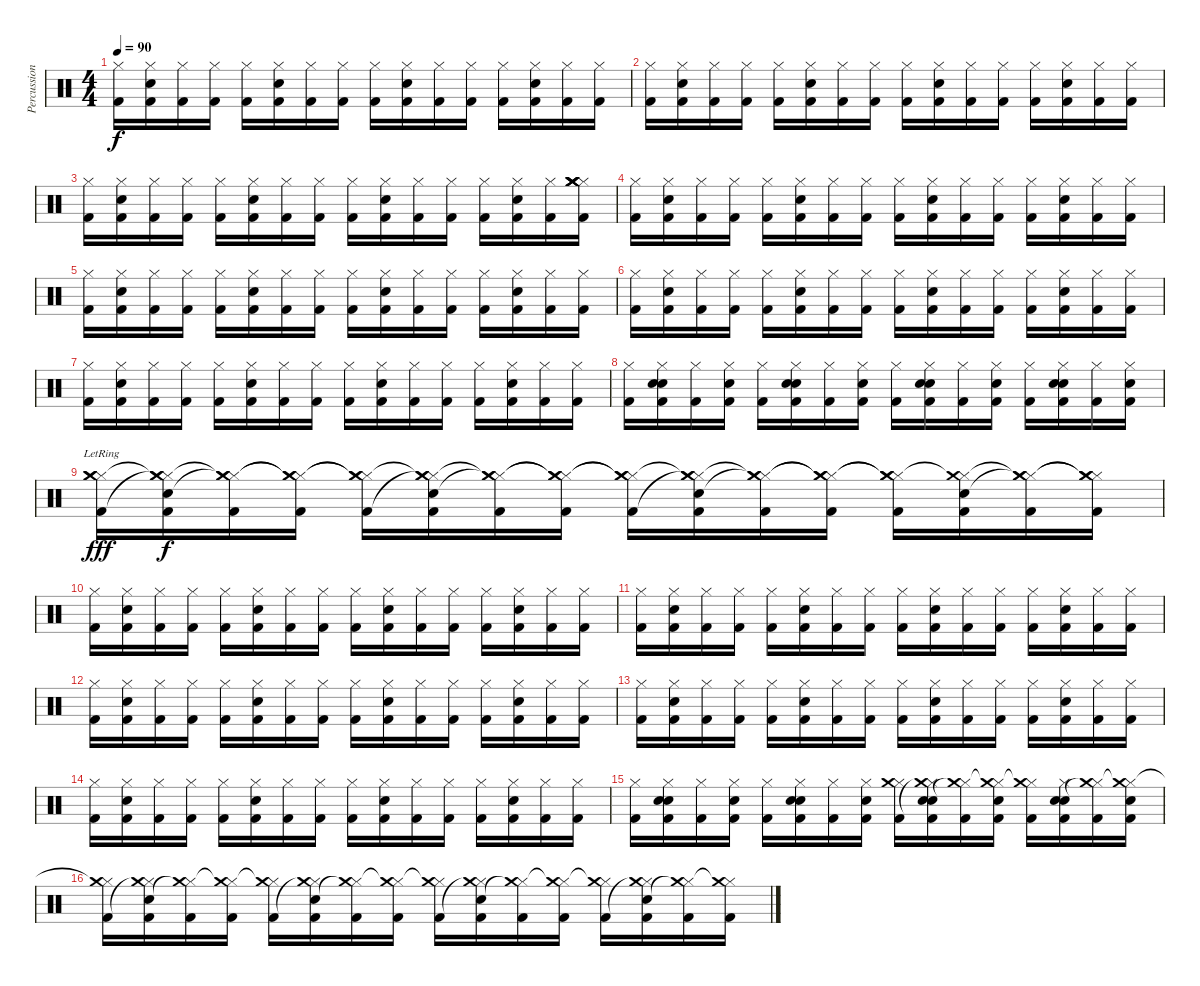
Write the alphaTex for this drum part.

\track ("Percussion" "Percussion") {instrument percussion}
\staff {score}
\articulation defaults
\ts (4 4)
\tempo 90
\clef neutral
\ks c
("Hi-Hat (closed)" "Kick (hit) 2").16{dy f} ("Hi-Hat (closed)" "Snare (hit) 2" "Kick (hit) 2").16 ("Hi-Hat (closed)" "Kick (hit) 2").16 ("Hi-Hat (closed)" "Kick (hit) 2").16 ("Hi-Hat (closed)" "Kick (hit) 2").16 ("Hi-Hat (closed)" "Snare (hit) 2" "Kick (hit) 2").16 ("Hi-Hat (closed)" "Kick (hit) 2").16 ("Hi-Hat (closed)" "Kick (hit) 2").16 ("Hi-Hat (closed)" "Kick (hit) 2").16 ("Hi-Hat (closed)" "Snare (hit) 2" "Kick (hit) 2").16 ("Hi-Hat (closed)" "Kick (hit) 2").16 ("Hi-Hat (closed)" "Kick (hit) 2").16 ("Hi-Hat (closed)" "Kick (hit) 2").16 ("Hi-Hat (closed)" "Snare (hit) 2" "Kick (hit) 2").16 ("Hi-Hat (closed)" "Kick (hit) 2").16 ("Hi-Hat (closed)" "Kick (hit) 2").16 |
("Hi-Hat (closed)" "Kick (hit) 2").16 ("Hi-Hat (closed)" "Snare (hit) 2" "Kick (hit) 2").16 ("Hi-Hat (closed)" "Kick (hit) 2").16 ("Hi-Hat (closed)" "Kick (hit) 2").16 ("Hi-Hat (closed)" "Kick (hit) 2").16 ("Hi-Hat (closed)" "Snare (hit) 2" "Kick (hit) 2").16 ("Hi-Hat (closed)" "Kick (hit) 2").16 ("Hi-Hat (closed)" "Kick (hit) 2").16 ("Hi-Hat (closed)" "Kick (hit) 2").16 ("Hi-Hat (closed)" "Snare (hit) 2" "Kick (hit) 2").16 ("Hi-Hat (closed)" "Kick (hit) 2").16 ("Hi-Hat (closed)" "Kick (hit) 2").16 ("Hi-Hat (closed)" "Kick (hit) 2").16 ("Hi-Hat (closed)" "Snare (hit) 2" "Kick (hit) 2").16 ("Hi-Hat (closed)" "Kick (hit) 2").16 ("Hi-Hat (closed)" "Kick (hit) 2").16 |
("Hi-Hat (closed)" "Kick (hit) 2").16 ("Hi-Hat (closed)" "Snare (hit) 2" "Kick (hit) 2").16 ("Hi-Hat (closed)" "Kick (hit) 2").16 ("Hi-Hat (closed)" "Kick (hit) 2").16 ("Hi-Hat (closed)" "Kick (hit) 2").16 ("Hi-Hat (closed)" "Snare (hit) 2" "Kick (hit) 2").16 ("Hi-Hat (closed)" "Kick (hit) 2").16 ("Hi-Hat (closed)" "Kick (hit) 2").16 ("Hi-Hat (closed)" "Kick (hit) 2").16 ("Hi-Hat (closed)" "Snare (hit) 2" "Kick (hit) 2").16 ("Hi-Hat (closed)" "Kick (hit) 2").16 ("Hi-Hat (closed)" "Kick (hit) 2").16 ("Hi-Hat (closed)" "Kick (hit) 2").16 ("Hi-Hat (closed)" "Snare (hit) 2" "Kick (hit) 2").16 ("Hi-Hat (closed)" "Kick (hit) 2").16 ("Hi-Hat (closed)" "Crash medium (hit)" "Crash medium (hit)" "Crash medium (hit)" "Crash medium (hit)" "Kick (hit) 2").16 |
("Hi-Hat (closed)" "Kick (hit) 2").16 ("Hi-Hat (closed)" "Snare (hit) 2" "Kick (hit) 2").16 ("Hi-Hat (closed)" "Kick (hit) 2").16 ("Hi-Hat (closed)" "Kick (hit) 2").16 ("Hi-Hat (closed)" "Kick (hit) 2").16 ("Hi-Hat (closed)" "Snare (hit) 2" "Kick (hit) 2").16 ("Hi-Hat (closed)" "Kick (hit) 2").16 ("Hi-Hat (closed)" "Kick (hit) 2").16 ("Hi-Hat (closed)" "Kick (hit) 2").16 ("Hi-Hat (closed)" "Snare (hit) 2" "Kick (hit) 2").16 ("Hi-Hat (closed)" "Kick (hit) 2").16 ("Hi-Hat (closed)" "Kick (hit) 2").16 ("Hi-Hat (closed)" "Kick (hit) 2").16 ("Hi-Hat (closed)" "Snare (hit) 2" "Kick (hit) 2").16 ("Hi-Hat (closed)" "Kick (hit) 2").16 ("Hi-Hat (closed)" "Kick (hit) 2").16 |
("Hi-Hat (closed)" "Kick (hit) 2").16 ("Hi-Hat (closed)" "Snare (hit) 2" "Kick (hit) 2").16 ("Hi-Hat (closed)" "Kick (hit) 2").16 ("Hi-Hat (closed)" "Kick (hit) 2").16 ("Hi-Hat (closed)" "Kick (hit) 2").16 ("Hi-Hat (closed)" "Snare (hit) 2" "Kick (hit) 2").16 ("Hi-Hat (closed)" "Kick (hit) 2").16 ("Hi-Hat (closed)" "Kick (hit) 2").16 ("Hi-Hat (closed)" "Kick (hit) 2").16 ("Hi-Hat (closed)" "Snare (hit) 2" "Kick (hit) 2").16 ("Hi-Hat (closed)" "Kick (hit) 2").16 ("Hi-Hat (closed)" "Kick (hit) 2").16 ("Hi-Hat (closed)" "Kick (hit) 2").16 ("Hi-Hat (closed)" "Snare (hit) 2" "Kick (hit) 2").16 ("Hi-Hat (closed)" "Kick (hit) 2").16 ("Hi-Hat (closed)" "Kick (hit) 2").16 |
("Hi-Hat (closed)" "Kick (hit) 2").16 ("Hi-Hat (closed)" "Snare (hit) 2" "Kick (hit) 2").16 ("Hi-Hat (closed)" "Kick (hit) 2").16 ("Hi-Hat (closed)" "Kick (hit) 2").16 ("Hi-Hat (closed)" "Kick (hit) 2").16 ("Hi-Hat (closed)" "Snare (hit) 2" "Kick (hit) 2").16 ("Hi-Hat (closed)" "Kick (hit) 2").16 ("Hi-Hat (closed)" "Kick (hit) 2").16 ("Hi-Hat (closed)" "Kick (hit) 2").16 ("Hi-Hat (closed)" "Snare (hit) 2" "Kick (hit) 2").16 ("Hi-Hat (closed)" "Kick (hit) 2").16 ("Hi-Hat (closed)" "Kick (hit) 2").16 ("Hi-Hat (closed)" "Kick (hit) 2").16 ("Hi-Hat (closed)" "Snare (hit) 2" "Kick (hit) 2").16 ("Hi-Hat (closed)" "Kick (hit) 2").16 ("Hi-Hat (closed)" "Kick (hit) 2").16 |
("Hi-Hat (closed)" "Kick (hit) 2").16 ("Hi-Hat (closed)" "Snare (hit) 2" "Kick (hit) 2").16 ("Hi-Hat (closed)" "Kick (hit) 2").16 ("Hi-Hat (closed)" "Kick (hit) 2").16 ("Hi-Hat (closed)" "Kick (hit) 2").16 ("Hi-Hat (closed)" "Snare (hit) 2" "Kick (hit) 2").16 ("Hi-Hat (closed)" "Kick (hit) 2").16 ("Hi-Hat (closed)" "Kick (hit) 2").16 ("Hi-Hat (closed)" "Kick (hit) 2").16 ("Hi-Hat (closed)" "Snare (hit) 2" "Kick (hit) 2").16 ("Hi-Hat (closed)" "Kick (hit) 2").16 ("Hi-Hat (closed)" "Kick (hit) 2").16 ("Hi-Hat (closed)" "Kick (hit) 2").16 ("Hi-Hat (closed)" "Snare (hit) 2" "Kick (hit) 2").16 ("Hi-Hat (closed)" "Kick (hit) 2").16 ("Hi-Hat (closed)" "Kick (hit) 2").16 |
("Hi-Hat (closed)" "Kick (hit) 2").16 ("Hi-Hat (closed)" "Snare (hit) 2" "Snare (hit) 2" "Kick (hit) 2").16 ("Hi-Hat (closed)" "Kick (hit) 2").16 ("Hi-Hat (closed)" "Snare (hit) 2" "Kick (hit) 2").16 ("Hi-Hat (closed)" "Kick (hit) 2").16 ("Hi-Hat (closed)" "Snare (hit) 2" "Snare (hit) 2" "Kick (hit) 2").16 ("Hi-Hat (closed)" "Kick (hit) 2").16 ("Hi-Hat (closed)" "Snare (hit) 2" "Kick (hit) 2").16 ("Hi-Hat (closed)" "Kick (hit) 2").16 ("Hi-Hat (closed)" "Snare (hit) 2" "Snare (hit) 2" "Kick (hit) 2").16 ("Hi-Hat (closed)" "Kick (hit) 2").16 ("Hi-Hat (closed)" "Snare (hit) 2" "Kick (hit) 2").16 ("Hi-Hat (closed)" "Kick (hit) 2").16 ("Hi-Hat (closed)" "Snare (hit) 2" "Snare (hit) 2" "Kick (hit) 2").16 ("Hi-Hat (closed)" "Kick (hit) 2").16 ("Hi-Hat (closed)" "Snare (hit) 2" "Kick (hit) 2").16 |
("Hi-Hat (closed)" "Crash medium (hit)"{lr} "Crash medium (hit)"{lr} "Kick (hit) 2").16{dy fff} ("Hi-Hat (closed)" "Snare (hit) 2" "Crash medium (hit)"{t} "Crash medium (hit)"{t} "Kick (hit) 2").16{dy f} ("Hi-Hat (closed)" "Crash medium (hit)"{t} "Crash medium (hit)"{t} "Kick (hit) 2").16 ("Hi-Hat (closed)" "Crash medium (hit)"{t} "Crash medium (hit)"{t} "Kick (hit) 2").16 ("Hi-Hat (closed)" "Crash medium (hit)"{t} "Crash medium (hit)"{t} "Kick (hit) 2").16 ("Hi-Hat (closed)" "Snare (hit) 2" "Crash medium (hit)"{t} "Crash medium (hit)"{t} "Kick (hit) 2").16 ("Hi-Hat (closed)" "Crash medium (hit)"{t} "Crash medium (hit)"{t} "Kick (hit) 2").16 ("Hi-Hat (closed)" "Crash medium (hit)"{t} "Crash medium (hit)"{t} "Kick (hit) 2").16 ("Hi-Hat (closed)" "Crash medium (hit)"{t} "Crash medium (hit)"{t} "Kick (hit) 2").16 ("Hi-Hat (closed)" "Snare (hit) 2" "Crash medium (hit)"{t} "Crash medium (hit)"{t} "Kick (hit) 2").16 ("Hi-Hat (closed)" "Crash medium (hit)"{t} "Crash medium (hit)"{t} "Kick (hit) 2").16 ("Hi-Hat (closed)" "Crash medium (hit)"{t} "Crash medium (hit)"{t} "Kick (hit) 2").16 ("Hi-Hat (closed)" "Crash medium (hit)"{t} "Crash medium (hit)"{t} "Kick (hit) 2").16 ("Hi-Hat (closed)" "Snare (hit) 2" "Crash medium (hit)"{t} "Kick (hit) 2").16 ("Hi-Hat (closed)" "Crash medium (hit)"{t} "Crash medium (hit)"{t} "Kick (hit) 2").16 ("Hi-Hat (closed)" "Crash medium (hit)"{t} "Crash medium (hit)"{t} "Kick (hit) 2").16 |
("Hi-Hat (closed)" "Kick (hit) 2").16 ("Hi-Hat (closed)" "Snare (hit) 2" "Kick (hit) 2").16 ("Hi-Hat (closed)" "Kick (hit) 2").16 ("Hi-Hat (closed)" "Kick (hit) 2").16 ("Hi-Hat (closed)" "Kick (hit) 2").16 ("Hi-Hat (closed)" "Snare (hit) 2" "Kick (hit) 2").16 ("Hi-Hat (closed)" "Kick (hit) 2").16 ("Hi-Hat (closed)" "Kick (hit) 2").16 ("Hi-Hat (closed)" "Kick (hit) 2").16 ("Hi-Hat (closed)" "Snare (hit) 2" "Kick (hit) 2").16 ("Hi-Hat (closed)" "Kick (hit) 2").16 ("Hi-Hat (closed)" "Kick (hit) 2").16 ("Hi-Hat (closed)" "Kick (hit) 2").16 ("Hi-Hat (closed)" "Snare (hit) 2" "Kick (hit) 2").16 ("Hi-Hat (closed)" "Kick (hit) 2").16 ("Hi-Hat (closed)" "Kick (hit) 2").16 |
("Hi-Hat (closed)" "Kick (hit) 2").16 ("Hi-Hat (closed)" "Snare (hit) 2" "Kick (hit) 2").16 ("Hi-Hat (closed)" "Kick (hit) 2").16 ("Hi-Hat (closed)" "Kick (hit) 2").16 ("Hi-Hat (closed)" "Kick (hit) 2").16 ("Hi-Hat (closed)" "Snare (hit) 2" "Kick (hit) 2").16 ("Hi-Hat (closed)" "Kick (hit) 2").16 ("Hi-Hat (closed)" "Kick (hit) 2").16 ("Hi-Hat (closed)" "Kick (hit) 2").16 ("Hi-Hat (closed)" "Snare (hit) 2" "Kick (hit) 2").16 ("Hi-Hat (closed)" "Kick (hit) 2").16 ("Hi-Hat (closed)" "Kick (hit) 2").16 ("Hi-Hat (closed)" "Kick (hit) 2").16 ("Hi-Hat (closed)" "Snare (hit) 2" "Kick (hit) 2").16 ("Hi-Hat (closed)" "Kick (hit) 2").16 ("Hi-Hat (closed)" "Kick (hit) 2").16 |
("Hi-Hat (closed)" "Kick (hit) 2").16 ("Hi-Hat (closed)" "Snare (hit) 2" "Kick (hit) 2").16 ("Hi-Hat (closed)" "Kick (hit) 2").16 ("Hi-Hat (closed)" "Kick (hit) 2").16 ("Hi-Hat (closed)" "Kick (hit) 2").16 ("Hi-Hat (closed)" "Snare (hit) 2" "Kick (hit) 2").16 ("Hi-Hat (closed)" "Kick (hit) 2").16 ("Hi-Hat (closed)" "Kick (hit) 2").16 ("Hi-Hat (closed)" "Kick (hit) 2").16 ("Hi-Hat (closed)" "Snare (hit) 2" "Kick (hit) 2").16 ("Hi-Hat (closed)" "Kick (hit) 2").16 ("Hi-Hat (closed)" "Kick (hit) 2").16 ("Hi-Hat (closed)" "Kick (hit) 2").16 ("Hi-Hat (closed)" "Snare (hit) 2" "Kick (hit) 2").16 ("Hi-Hat (closed)" "Kick (hit) 2").16 ("Hi-Hat (closed)" "Kick (hit) 2").16 |
("Hi-Hat (closed)" "Kick (hit) 2").16 ("Hi-Hat (closed)" "Snare (hit) 2" "Kick (hit) 2").16 ("Hi-Hat (closed)" "Kick (hit) 2").16 ("Hi-Hat (closed)" "Kick (hit) 2").16 ("Hi-Hat (closed)" "Kick (hit) 2").16 ("Hi-Hat (closed)" "Snare (hit) 2" "Kick (hit) 2").16 ("Hi-Hat (closed)" "Kick (hit) 2").16 ("Hi-Hat (closed)" "Kick (hit) 2").16 ("Hi-Hat (closed)" "Kick (hit) 2").16 ("Hi-Hat (closed)" "Snare (hit) 2" "Kick (hit) 2").16 ("Hi-Hat (closed)" "Kick (hit) 2").16 ("Hi-Hat (closed)" "Kick (hit) 2").16 ("Hi-Hat (closed)" "Kick (hit) 2").16 ("Hi-Hat (closed)" "Snare (hit) 2" "Kick (hit) 2").16 ("Hi-Hat (closed)" "Kick (hit) 2").16 ("Hi-Hat (closed)" "Kick (hit) 2").16 |
("Hi-Hat (closed)" "Kick (hit) 2").16 ("Hi-Hat (closed)" "Snare (hit) 2" "Kick (hit) 2").16 ("Hi-Hat (closed)" "Kick (hit) 2").16 ("Hi-Hat (closed)" "Kick (hit) 2").16 ("Hi-Hat (closed)" "Kick (hit) 2").16 ("Hi-Hat (closed)" "Snare (hit) 2" "Kick (hit) 2").16 ("Hi-Hat (closed)" "Kick (hit) 2").16 ("Hi-Hat (closed)" "Kick (hit) 2").16 ("Hi-Hat (closed)" "Kick (hit) 2").16 ("Hi-Hat (closed)" "Snare (hit) 2" "Kick (hit) 2").16 ("Hi-Hat (closed)" "Kick (hit) 2").16 ("Hi-Hat (closed)" "Kick (hit) 2").16 ("Hi-Hat (closed)" "Kick (hit) 2").16 ("Hi-Hat (closed)" "Snare (hit) 2" "Kick (hit) 2").16 ("Hi-Hat (closed)" "Kick (hit) 2").16 ("Hi-Hat (closed)" "Kick (hit) 2").16 |
("Hi-Hat (closed)" "Kick (hit) 2").16 ("Hi-Hat (closed)" "Snare (hit) 2" "Snare (hit) 2" "Kick (hit) 2").16 ("Hi-Hat (closed)" "Kick (hit) 2").16 ("Hi-Hat (closed)" "Snare (hit) 2" "Kick (hit) 2").16 ("Hi-Hat (closed)" "Kick (hit) 2").16 ("Hi-Hat (closed)" "Snare (hit) 2" "Snare (hit) 2" "Kick (hit) 2").16 ("Hi-Hat (closed)" "Kick (hit) 2").16 ("Hi-Hat (closed)" "Snare (hit) 2" "Kick (hit) 2").16 ("Hi-Hat (closed)" "Crash medium (hit)" "Kick (hit) 2").16 ("Hi-Hat (closed)" "Snare (hit) 2" "Crash medium (hit)"{t} "Snare (hit) 2" "Kick (hit) 2").16 ("Hi-Hat (closed)" "Crash medium (hit)"{t} "Kick (hit) 2").16 ("Hi-Hat (closed)" "Crash medium (hit)"{t} "Snare (hit) 2" "Kick (hit) 2").16 ("Hi-Hat (closed)" "Crash medium (hit)"{t} "Kick (hit) 2").16 ("Hi-Hat (closed)" "Snare (hit) 2" "Snare (hit) 2" "Kick (hit) 2").16 ("Hi-Hat (closed)" "Crash medium (hit)"{t} "Kick (hit) 2").16 ("Hi-Hat (closed)" "Crash medium (hit)"{t} "Snare (hit) 2" "Kick (hit) 2").16 |
("Hi-Hat (closed)" "Crash medium (hit)"{t} "Kick (hit) 2").16 ("Hi-Hat (closed)" "Snare (hit) 2" "Crash medium (hit)"{t} "Kick (hit) 2").16 ("Hi-Hat (closed)" "Crash medium (hit)"{t} "Kick (hit) 2").16 ("Hi-Hat (closed)" "Crash medium (hit)"{t} "Kick (hit) 2").16 ("Hi-Hat (closed)" "Crash medium (hit)"{t} "Kick (hit) 2").16 ("Hi-Hat (closed)" "Snare (hit) 2" "Crash medium (hit)"{t} "Kick (hit) 2").16 ("Hi-Hat (closed)" "Crash medium (hit)"{t} "Kick (hit) 2").16 ("Hi-Hat (closed)" "Crash medium (hit)"{t} "Kick (hit) 2").16 ("Hi-Hat (closed)" "Crash medium (hit)"{t} "Kick (hit) 2").16 ("Hi-Hat (closed)" "Snare (hit) 2" "Crash medium (hit)"{t} "Kick (hit) 2").16 ("Hi-Hat (closed)" "Crash medium (hit)"{t} "Kick (hit) 2").16 ("Hi-Hat (closed)" "Crash medium (hit)"{t} "Kick (hit) 2").16 ("Hi-Hat (closed)" "Crash medium (hit)"{t} "Kick (hit) 2").16 ("Hi-Hat (closed)" "Snare (hit) 2" "Crash medium (hit)"{t} "Kick (hit) 2").16 ("Hi-Hat (closed)" "Crash medium (hit)"{t} "Kick (hit) 2").16 ("Hi-Hat (closed)" "Crash medium (hit)"{t} "Kick (hit) 2").16
